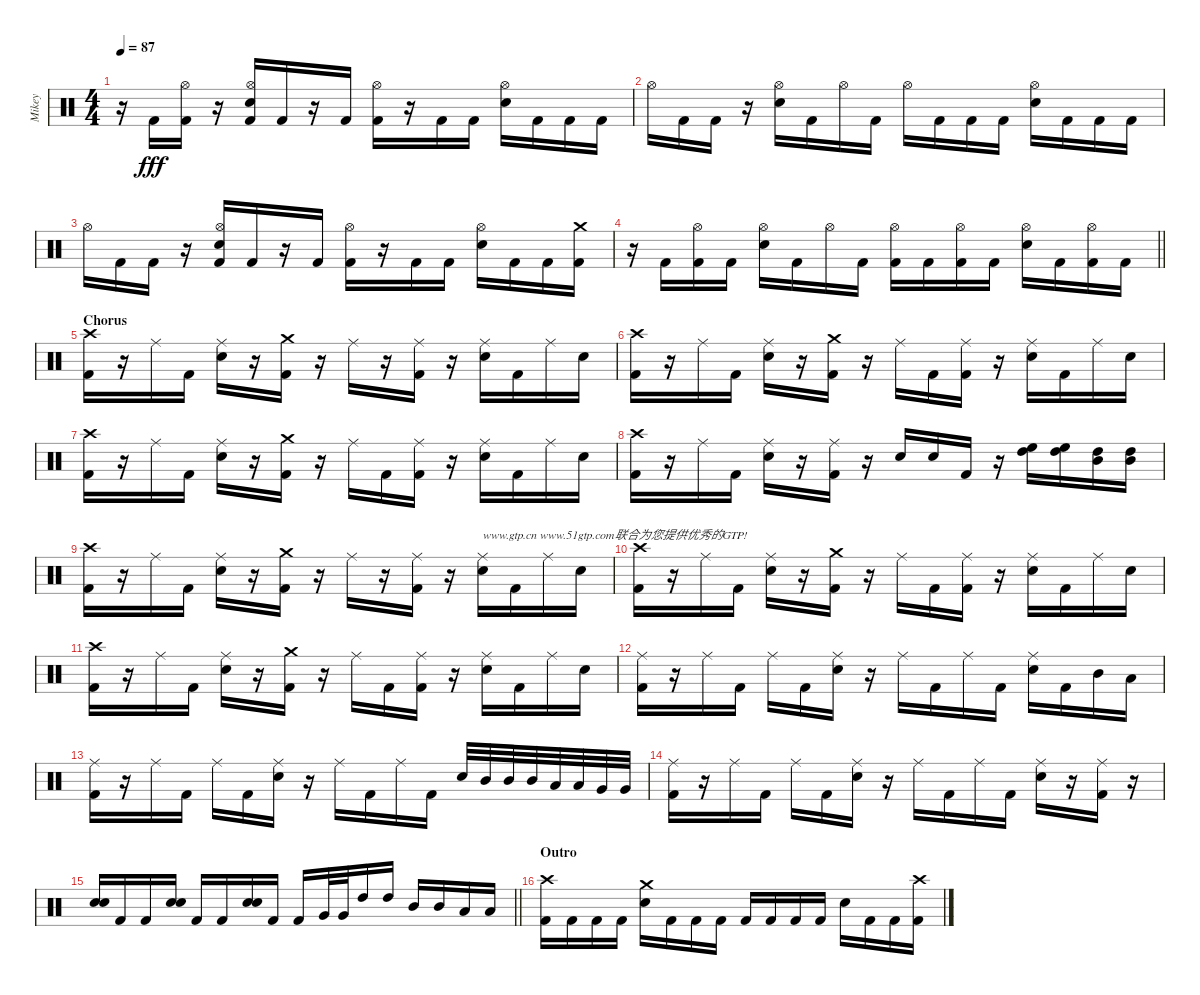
\track ("Mikey" "Mikey") {instrument percussion}
\staff {score}
\articulation defaults
\ts (4 4)
\tempo 87
\clef neutral
\ks c
r.16{dy fff} "Kick (hit) 2".16 ("Kick (hit) 2" "Hi-Hat (open)").16 r.16 ("Hi-Hat (open)" "Kick (hit) 2" "Electric Snare (hit)").16 "Kick (hit) 2".16 r.16 "Kick (hit) 2".16 ("Hi-Hat (open)" "Kick (hit) 2").16 r.16 "Kick (hit) 2".16 "Kick (hit) 2".16 ("Hi-Hat (open)" "Electric Snare (hit)").16 "Kick (hit) 2".16 "Kick (hit) 2".16 "Kick (hit) 2".16 |
"Hi-Hat (open)".16 "Kick (hit) 2".16 "Kick (hit) 2".16 r.16 ("Electric Snare (hit)" "Hi-Hat (open)").16 "Kick (hit) 2".16 "Hi-Hat (open)".16 "Kick (hit) 2".16 "Hi-Hat (open)".16 "Kick (hit) 2".16 "Kick (hit) 2".16 "Kick (hit) 2".16 ("Electric Snare (hit)" "Hi-Hat (open)").16 "Kick (hit) 2".16 "Kick (hit) 2".16 "Kick (hit) 2".16 |
"Hi-Hat (open)".16 "Kick (hit) 2".16 "Kick (hit) 2".16 r.16 ("Hi-Hat (open)" "Kick (hit) 2" "Electric Snare (hit)").16 "Kick (hit) 2".16 r.16 "Kick (hit) 2".16 ("Hi-Hat (open)" "Kick (hit) 2").16 r.16 "Kick (hit) 2".16 "Kick (hit) 2".16 ("Hi-Hat (open)" "Electric Snare (hit)").16 "Kick (hit) 2".16 "Kick (hit) 2".16 ("Crash medium (hit)" "Kick (hit) 2").16 |
\barLineRight lightlight
r.16 "Kick (hit) 2".16 ("Hi-Hat (open)" "Kick (hit) 2").16 "Kick (hit) 2".16 ("Hi-Hat (open)" "Electric Snare (hit)").16 "Kick (hit) 2".16 "Hi-Hat (open)".16 "Kick (hit) 2".16 ("Kick (hit) 2" "Hi-Hat (open)").16 "Kick (hit) 2".16 ("Kick (hit) 2" "Hi-Hat (open)").16 "Kick (hit) 2".16 ("Hi-Hat (open)" "Electric Snare (hit)").16 "Kick (hit) 2".16 ("Kick (hit) 2" "Hi-Hat (open)").16 "Kick (hit) 2".16 |
\section ("" "Chorus")
("Kick (hit) 2" "Crash high (hit)").16 r.16 "Ride (middle)".16 "Kick (hit) 2".16 ("Electric Snare (hit)" "Ride (middle)").16 r.16 ("Crash medium (hit)" "Kick (hit) 2").16 r.16 "Ride (middle)".16 r.16 ("Kick (hit) 2" "Ride (middle)").16 r.16 ("Electric Snare (hit)" "Ride (middle)").16 "Kick (hit) 2".16 "Ride (middle)".16 "Electric Snare (hit)".16 |
("Kick (hit) 2" "Crash high (hit)").16 r.16 "Ride (middle)".16 "Kick (hit) 2".16 ("Electric Snare (hit)" "Ride (middle)").16 r.16 ("Crash medium (hit)" "Kick (hit) 2").16 r.16 "Ride (middle)".16 "Kick (hit) 2".16 ("Kick (hit) 2" "Ride (middle)").16 r.16 ("Electric Snare (hit)" "Ride (middle)").16 "Kick (hit) 2".16 "Ride (middle)".16 "Electric Snare (hit)".16 |
("Kick (hit) 2" "Crash high (hit)").16 r.16 "Ride (middle)".16 "Kick (hit) 2".16 ("Ride (middle)" "Electric Snare (hit)").16 r.16 ("Crash medium (hit)" "Kick (hit) 2").16 r.16 "Ride (middle)".16 "Kick (hit) 2".16 ("Ride (middle)" "Kick (hit) 2").16 r.16 ("Electric Snare (hit)" "Ride (middle)").16 "Kick (hit) 2".16 "Ride (middle)".16 "Electric Snare (hit)".16 |
("Kick (hit) 2" "Crash high (hit)").16 r.16 "Ride (middle)".16 "Kick (hit) 2".16 ("Electric Snare (hit)" "Ride (middle)").16 r.16 ("Kick (hit) 2" "Ride (middle)").16 r.16 "Electric Snare (hit)".16 "Electric Snare (hit)".16 "Kick (hit) 2".16 r.16 ("High Floor Tom (hit)" "High Tom (hit)").16 ("High Floor Tom (hit)" "High Tom (hit)").16 ("High Tom (hit)" "Mid Tom (hit)").16 ("High Tom (hit)" "Mid Tom (hit)").16 |
("Kick (hit) 2" "Crash high (hit)").16 r.16 "Ride (middle)".16 "Kick (hit) 2".16 ("Electric Snare (hit)" "Ride (middle)").16 r.16 ("Crash medium (hit)" "Kick (hit) 2").16 r.16 "Ride (middle)".16 r.16 ("Kick (hit) 2" "Ride (middle)").16 r.16 ("Electric Snare (hit)" "Ride (middle)").16{txt "www.gtp.cn www.51gtp.com联合为您提供优秀的GTP!"} "Kick (hit) 2".16 "Ride (middle)".16 "Electric Snare (hit)".16 |
("Kick (hit) 2" "Crash high (hit)").16 r.16 "Ride (middle)".16 "Kick (hit) 2".16 ("Electric Snare (hit)" "Ride (middle)").16 r.16 ("Crash medium (hit)" "Kick (hit) 2").16 r.16 "Ride (middle)".16 "Kick (hit) 2".16 ("Kick (hit) 2" "Ride (middle)").16 r.16 ("Electric Snare (hit)" "Ride (middle)").16 "Kick (hit) 2".16 "Ride (middle)".16 "Electric Snare (hit)".16 |
("Kick (hit) 2" "Crash high (hit)").16 r.16 "Ride (middle)".16 "Kick (hit) 2".16 ("Ride (middle)" "Electric Snare (hit)").16 r.16 ("Crash medium (hit)" "Kick (hit) 2").16 r.16 "Ride (middle)".16 "Kick (hit) 2".16 ("Ride (middle)" "Kick (hit) 2").16 r.16 ("Electric Snare (hit)" "Ride (middle)").16 "Kick (hit) 2".16 "Ride (middle)".16 "Electric Snare (hit)".16 |
("Ride (middle)" "Kick (hit) 2").16 r.16 "Ride (middle)".16 "Kick (hit) 2".16 "Ride (middle)".16 "Kick (hit) 2".16 ("Electric Snare (hit)" "Ride (middle)").16 r.16 "Ride (middle)".16 "Kick (hit) 2".16 "Ride (middle)".16 "Kick (hit) 2".16 ("Ride (middle)" "Electric Snare (hit)").16 "Kick (hit) 2".16 "Mid Tom (hit)".16 "Low Tom (hit)".16 |
("Ride (middle)" "Kick (hit) 2").16 r.16 "Ride (middle)".16 "Kick (hit) 2".16 "Ride (middle)".16 "Kick (hit) 2".16 ("Electric Snare (hit)" "Ride (middle)").16 r.16 "Ride (middle)".16 "Kick (hit) 2".16 "Ride (middle)".16 "Kick (hit) 2".16 "Electric Snare (hit)".32 "Mid Tom (hit)".32 "Mid Tom (hit)".32 "Mid Tom (hit)".32 "Low Tom (hit)".32 "Low Tom (hit)".32 "Very Low Tom (hit)".32 "Very Low Tom (hit)".32 |
("Ride (middle)" "Kick (hit) 2").16 r.16 "Ride (middle)".16 "Kick (hit) 2".16 "Ride (middle)".16 "Kick (hit) 2".16 ("Electric Snare (hit)" "Ride (middle)").16 r.16 "Ride (middle)".16 "Kick (hit) 2".16 "Ride (middle)".16 "Kick (hit) 2".16 ("Ride (middle)" "Electric Snare (hit)").16 r.16 ("Kick (hit) 2" "Ride (middle)").16 r.16 |
\barLineRight lightlight
("Electric Snare (hit)" "Electric Snare (hit)").16 "Kick (hit) 2".16 "Kick (hit) 2".16 ("Electric Snare (hit)" "Electric Snare (hit)").16 "Kick (hit) 2".16 "Kick (hit) 2".16 ("Electric Snare (hit)" "Electric Snare (hit)").16 "Kick (hit) 2".16 "Kick (hit) 2".16 "Very Low Tom (hit)".32 "Very Low Tom (hit)".32 "High Tom (hit)".16 "High Tom (hit)".16 "Mid Tom (hit)".16 "Mid Tom (hit)".16 "Low Tom (hit)".16 "Low Tom (hit)".16 |
\section ("" "Outro")
("Crash high (hit)" "Kick (hit) 2").16 "Kick (hit) 2".16 "Kick (hit) 2".16 "Kick (hit) 2".16 ("Crash medium (hit)" "Electric Snare (hit)").16 "Kick (hit) 2".16 "Kick (hit) 2".16 "Kick (hit) 2".16 "Kick (hit) 2".16 "Kick (hit) 2".16 "Kick (hit) 2".16 "Kick (hit) 2".16 "Electric Snare (hit)".16 "Kick (hit) 2".16 "Kick (hit) 2".16 ("Crash high (hit)" "Kick (hit) 2").16
